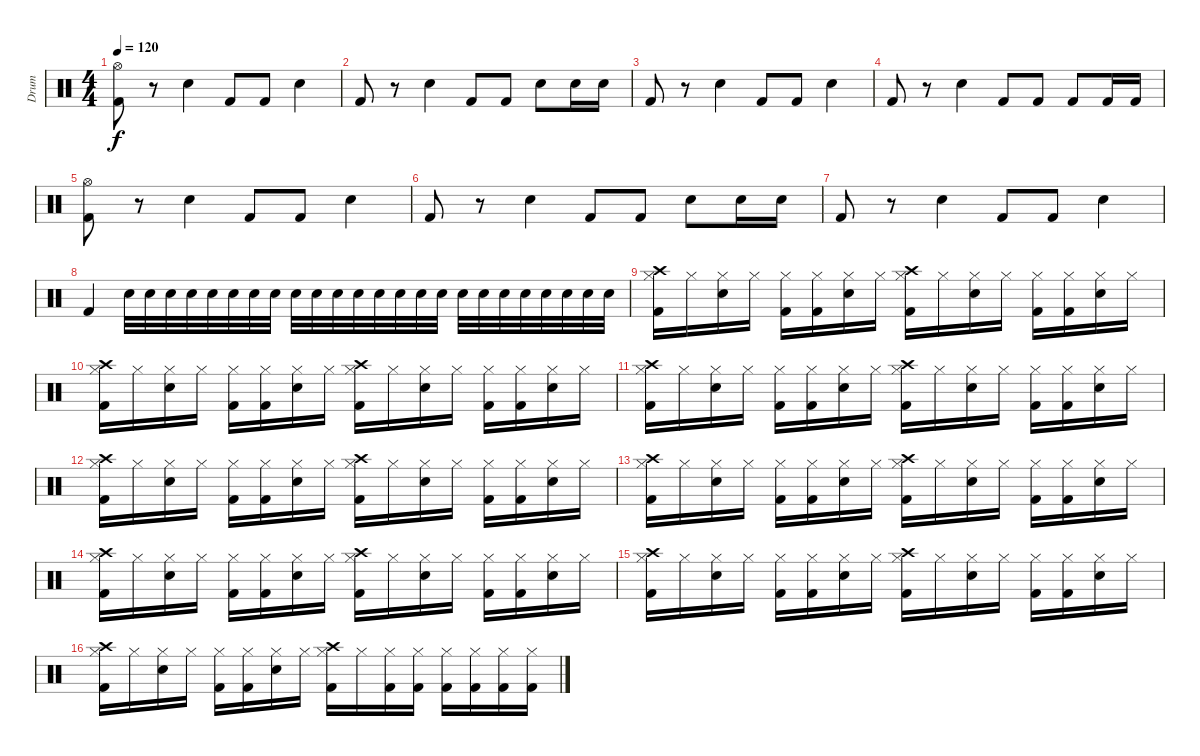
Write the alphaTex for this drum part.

\track ("Drum" "Drum") {instrument percussion}
\staff {score}
\articulation defaults
\ts (4 4)
\tempo 120
\clef neutral
\ks c
("Kick (hit) 2" "Hi-Hat (open)").8{dy f} r.8 "Electric Snare (hit)".4 "Kick (hit) 2".8 "Kick (hit) 2".8 "Electric Snare (hit)".4 |
"Kick (hit) 2".8 r.8 "Electric Snare (hit)".4 "Kick (hit) 2".8 "Kick (hit) 2".8 "Electric Snare (hit)".8 "Electric Snare (hit)".16 "Electric Snare (hit)".16 |
"Kick (hit) 2".8 r.8 "Electric Snare (hit)".4 "Kick (hit) 2".8 "Kick (hit) 2".8 "Electric Snare (hit)".4 |
"Kick (hit) 2".8 r.8 "Electric Snare (hit)".4 "Kick (hit) 2".8 "Kick (hit) 2".8 "Kick (hit) 2".8 "Kick (hit) 2".16 "Kick (hit) 2".16 |
("Kick (hit) 2" "Hi-Hat (open)").8 r.8 "Electric Snare (hit)".4 "Kick (hit) 2".8 "Kick (hit) 2".8 "Electric Snare (hit)".4 |
"Kick (hit) 2".8 r.8 "Electric Snare (hit)".4 "Kick (hit) 2".8 "Kick (hit) 2".8 "Electric Snare (hit)".8 "Electric Snare (hit)".16 "Electric Snare (hit)".16 |
"Kick (hit) 2".8 r.8 "Electric Snare (hit)".4 "Kick (hit) 2".8 "Kick (hit) 2".8 "Electric Snare (hit)".4 |
"Kick (hit) 2".4 "Electric Snare (hit)".32 "Electric Snare (hit)".32 "Electric Snare (hit)".32 "Electric Snare (hit)".32 "Electric Snare (hit)".32 "Electric Snare (hit)".32 "Electric Snare (hit)".32 "Electric Snare (hit)".32 "Electric Snare (hit)".32 "Electric Snare (hit)".32 "Electric Snare (hit)".32 "Electric Snare (hit)".32 "Electric Snare (hit)".32 "Electric Snare (hit)".32 "Electric Snare (hit)".32 "Electric Snare (hit)".32 "Electric Snare (hit)".32 "Electric Snare (hit)".32 "Electric Snare (hit)".32 "Electric Snare (hit)".32 "Electric Snare (hit)".32 "Electric Snare (hit)".32 "Electric Snare (hit)".32 "Electric Snare (hit)".32 |
("Kick (hit) 2" "Hi-Hat (closed)" "Crash high (hit)").16 "Hi-Hat (closed)".16 ("Electric Snare (hit)" "Hi-Hat (closed)").16 "Hi-Hat (closed)".16 ("Kick (hit) 2" "Hi-Hat (closed)").16 ("Kick (hit) 2" "Hi-Hat (closed)").16 ("Electric Snare (hit)" "Hi-Hat (closed)").16 "Hi-Hat (closed)".16 ("Kick (hit) 2" "Hi-Hat (closed)" "Crash high (hit)").16 "Hi-Hat (closed)".16 ("Electric Snare (hit)" "Hi-Hat (closed)").16 "Hi-Hat (closed)".16 ("Kick (hit) 2" "Hi-Hat (closed)").16 ("Kick (hit) 2" "Hi-Hat (closed)").16 ("Electric Snare (hit)" "Hi-Hat (closed)").16 "Hi-Hat (closed)".16 |
("Kick (hit) 2" "Hi-Hat (closed)" "Crash high (hit)").16 "Hi-Hat (closed)".16 ("Electric Snare (hit)" "Hi-Hat (closed)").16 "Hi-Hat (closed)".16 ("Kick (hit) 2" "Hi-Hat (closed)").16 ("Kick (hit) 2" "Hi-Hat (closed)").16 ("Electric Snare (hit)" "Hi-Hat (closed)").16 "Hi-Hat (closed)".16 ("Kick (hit) 2" "Hi-Hat (closed)" "Crash high (hit)").16 "Hi-Hat (closed)".16 ("Electric Snare (hit)" "Hi-Hat (closed)").16 "Hi-Hat (closed)".16 ("Kick (hit) 2" "Hi-Hat (closed)").16 ("Kick (hit) 2" "Hi-Hat (closed)").16 ("Electric Snare (hit)" "Hi-Hat (closed)").16 "Hi-Hat (closed)".16 |
("Kick (hit) 2" "Hi-Hat (closed)" "Crash high (hit)").16 "Hi-Hat (closed)".16 ("Electric Snare (hit)" "Hi-Hat (closed)").16 "Hi-Hat (closed)".16 ("Kick (hit) 2" "Hi-Hat (closed)").16 ("Kick (hit) 2" "Hi-Hat (closed)").16 ("Electric Snare (hit)" "Hi-Hat (closed)").16 "Hi-Hat (closed)".16 ("Kick (hit) 2" "Hi-Hat (closed)" "Crash high (hit)").16 "Hi-Hat (closed)".16 ("Electric Snare (hit)" "Hi-Hat (closed)").16 "Hi-Hat (closed)".16 ("Kick (hit) 2" "Hi-Hat (closed)").16 ("Kick (hit) 2" "Hi-Hat (closed)").16 ("Electric Snare (hit)" "Hi-Hat (closed)").16 "Hi-Hat (closed)".16 |
("Kick (hit) 2" "Hi-Hat (closed)" "Crash high (hit)").16 "Hi-Hat (closed)".16 ("Electric Snare (hit)" "Hi-Hat (closed)").16 "Hi-Hat (closed)".16 ("Kick (hit) 2" "Hi-Hat (closed)").16 ("Kick (hit) 2" "Hi-Hat (closed)").16 ("Electric Snare (hit)" "Hi-Hat (closed)").16 "Hi-Hat (closed)".16 ("Kick (hit) 2" "Hi-Hat (closed)" "Crash high (hit)").16 "Hi-Hat (closed)".16 ("Electric Snare (hit)" "Hi-Hat (closed)").16 "Hi-Hat (closed)".16 ("Kick (hit) 2" "Hi-Hat (closed)").16 ("Kick (hit) 2" "Hi-Hat (closed)").16 ("Electric Snare (hit)" "Hi-Hat (closed)").16 "Hi-Hat (closed)".16 |
("Kick (hit) 2" "Hi-Hat (closed)" "Crash high (hit)").16 "Hi-Hat (closed)".16 ("Electric Snare (hit)" "Hi-Hat (closed)").16 "Hi-Hat (closed)".16 ("Kick (hit) 2" "Hi-Hat (closed)").16 ("Kick (hit) 2" "Hi-Hat (closed)").16 ("Electric Snare (hit)" "Hi-Hat (closed)").16 "Hi-Hat (closed)".16 ("Kick (hit) 2" "Hi-Hat (closed)" "Crash high (hit)").16 "Hi-Hat (closed)".16 ("Electric Snare (hit)" "Hi-Hat (closed)").16 "Hi-Hat (closed)".16 ("Kick (hit) 2" "Hi-Hat (closed)").16 ("Kick (hit) 2" "Hi-Hat (closed)").16 ("Electric Snare (hit)" "Hi-Hat (closed)").16 "Hi-Hat (closed)".16 |
("Kick (hit) 2" "Hi-Hat (closed)" "Crash high (hit)").16 "Hi-Hat (closed)".16 ("Electric Snare (hit)" "Hi-Hat (closed)").16 "Hi-Hat (closed)".16 ("Kick (hit) 2" "Hi-Hat (closed)").16 ("Kick (hit) 2" "Hi-Hat (closed)").16 ("Electric Snare (hit)" "Hi-Hat (closed)").16 "Hi-Hat (closed)".16 ("Kick (hit) 2" "Hi-Hat (closed)" "Crash high (hit)").16 "Hi-Hat (closed)".16 ("Electric Snare (hit)" "Hi-Hat (closed)").16 "Hi-Hat (closed)".16 ("Kick (hit) 2" "Hi-Hat (closed)").16 ("Kick (hit) 2" "Hi-Hat (closed)").16 ("Electric Snare (hit)" "Hi-Hat (closed)").16 "Hi-Hat (closed)".16 |
("Kick (hit) 2" "Hi-Hat (closed)" "Crash high (hit)").16 "Hi-Hat (closed)".16 ("Electric Snare (hit)" "Hi-Hat (closed)").16 "Hi-Hat (closed)".16 ("Kick (hit) 2" "Hi-Hat (closed)").16 ("Kick (hit) 2" "Hi-Hat (closed)").16 ("Electric Snare (hit)" "Hi-Hat (closed)").16 "Hi-Hat (closed)".16 ("Kick (hit) 2" "Hi-Hat (closed)" "Crash high (hit)").16 "Hi-Hat (closed)".16 ("Electric Snare (hit)" "Hi-Hat (closed)").16 "Hi-Hat (closed)".16 ("Kick (hit) 2" "Hi-Hat (closed)").16 ("Kick (hit) 2" "Hi-Hat (closed)").16 ("Electric Snare (hit)" "Hi-Hat (closed)").16 "Hi-Hat (closed)".16 |
("Kick (hit) 2" "Hi-Hat (closed)" "Crash high (hit)").16 "Hi-Hat (closed)".16 ("Electric Snare (hit)" "Hi-Hat (closed)").16 "Hi-Hat (closed)".16 ("Kick (hit) 2" "Hi-Hat (closed)").16 ("Kick (hit) 2" "Hi-Hat (closed)").16 ("Electric Snare (hit)" "Hi-Hat (closed)").16 "Hi-Hat (closed)".16 ("Kick (hit) 2" "Hi-Hat (closed)" "Crash high (hit)").16 "Hi-Hat (closed)".16 ("Kick (hit) 2" "Hi-Hat (closed)").16 ("Kick (hit) 2" "Hi-Hat (closed)").16 ("Kick (hit) 2" "Hi-Hat (closed)").16 ("Kick (hit) 2" "Hi-Hat (closed)").16 ("Kick (hit) 2" "Hi-Hat (closed)").16 ("Kick (hit) 2" "Hi-Hat (closed)").16
